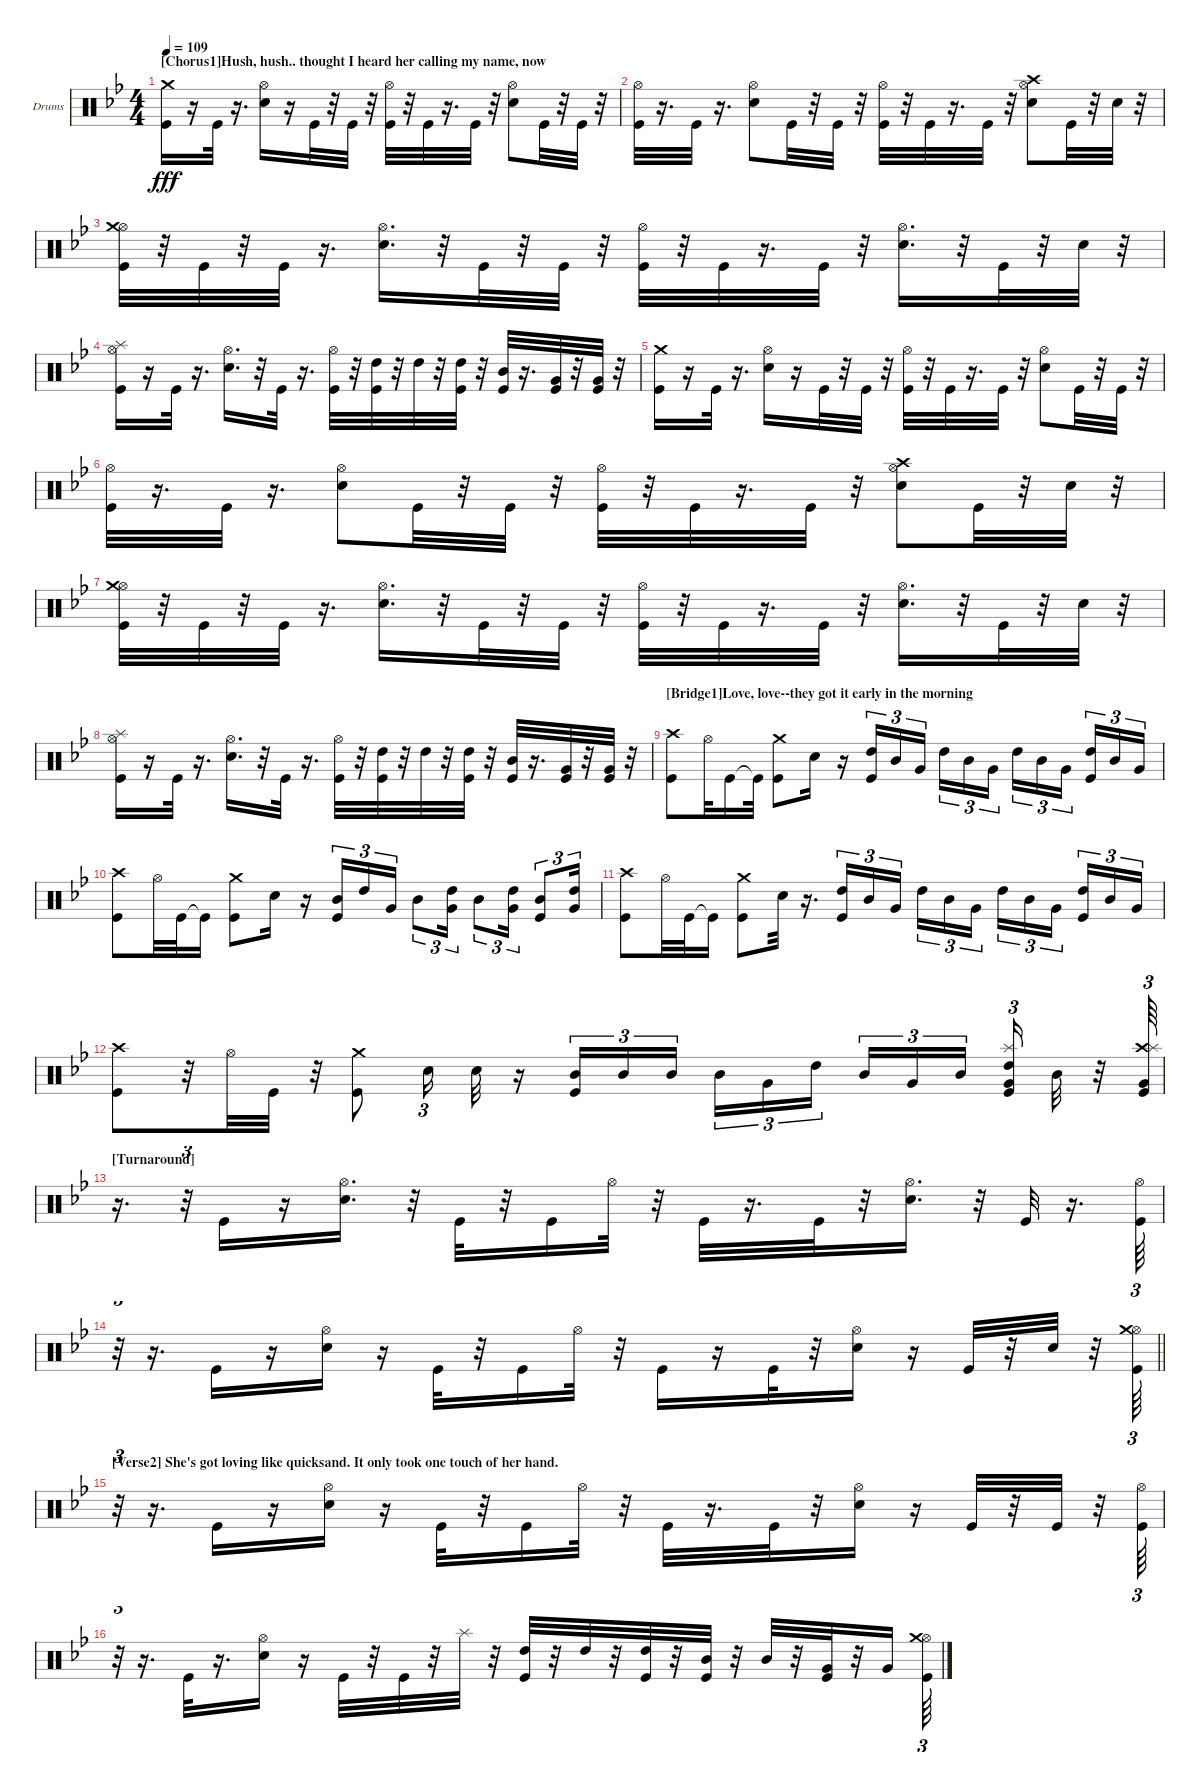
\bracketExtendMode groupsimilarinstruments
\firstSystemTrackNameOrientation horizontal
\otherSystemsTrackNameOrientation horizontal
\track ("Drumkit" "Drums") {instrument percussion}
\staff {score}
\articulation defaults
\ts (4 4)
\section ("" "[Chorus1]Hush, hush.. thought I heard her calling my name, now")
\tempo 109
\clef neutral
\ks gminor
("Kick (hit)" "Crash medium (hit)").16{dy fff} r.16 "Kick (hit)".32 r.16{d} ("Snare (hit) 2" "Hi-Hat (open)").16 r.16 "Kick (hit)".32 r.32 "Kick (hit)".32 r.32 ("Kick (hit)" "Hi-Hat (open)").32 r.32 "Kick (hit)".32 r.16{d} "Kick (hit)".32 r.32 ("Snare (hit) 2" "Hi-Hat (open)").8 "Kick (hit)".32 r.32 "Kick (hit)".32 r.32 |
("Kick (hit)" "Hi-Hat (open)").32 r.16{d} "Kick (hit)".32 r.16{d} ("Snare (hit) 2" "Hi-Hat (open)").8 "Kick (hit)".32 r.32 "Kick (hit)".32 r.32 ("Kick (hit)" "Hi-Hat (open)").32 r.32 "Kick (hit)".32 r.16{d} "Kick (hit)".32 r.32 ("Snare (hit) 2" "Hi-Hat (open)" "Crash high (hit)").8 "Kick (hit)".32 r.32 "Snare (hit) 2".32 r.32 |
("Kick (hit)" "Hi-Hat (open)" "Crash medium (hit)").32 r.32 "Kick (hit)".32 r.32 "Kick (hit)".32 r.16{d} ("Snare (hit) 2" "Hi-Hat (open)").16{d} r.32 "Kick (hit)".32 r.32 "Kick (hit)".32 r.32 ("Kick (hit)" "Hi-Hat (open)").32 r.32 "Kick (hit)".32 r.16{d} "Kick (hit)".32 r.32 ("Snare (hit) 2" "Hi-Hat (open)").16{d} r.32 "Kick (hit)".32 r.32 "Snare (hit) 2".32 r.32 |
("Kick (hit)" "Hi-Hat (open)" "Splash (hit)").16 r.16 "Kick (hit)".32 r.16{d} ("Snare (hit) 2" "Hi-Hat (open)").16{d} r.32 "Kick (hit)".32 r.16{d} ("Kick (hit)" "Hi-Hat (open)").32 r.32 ("Kick (hit)" "High Tom (hit)").32 r.32 "High Tom (hit)".32 r.32 ("Kick (hit)" "High Tom (hit)").32 r.32 ("Kick (hit)" "Mid Tom (hit)").32 r.16{d} ("Kick (hit)" "Very Low Tom (hit)").32 r.32 ("Kick (hit)" "Very Low Tom (hit)").32 r.32 |
("Kick (hit)" "Crash medium (hit)").16 r.16 "Kick (hit)".32 r.16{d} ("Snare (hit) 2" "Hi-Hat (open)").16 r.16 "Kick (hit)".32 r.32 "Kick (hit)".32 r.32 ("Kick (hit)" "Hi-Hat (open)").32 r.32 "Kick (hit)".32 r.16{d} "Kick (hit)".32 r.32 ("Snare (hit) 2" "Hi-Hat (open)").8 "Kick (hit)".32 r.32 "Kick (hit)".32 r.32 |
("Kick (hit)" "Hi-Hat (open)").32 r.16{d} "Kick (hit)".32 r.16{d} ("Snare (hit) 2" "Hi-Hat (open)").8 "Kick (hit)".32 r.32 "Kick (hit)".32 r.32 ("Kick (hit)" "Hi-Hat (open)").32 r.32 "Kick (hit)".32 r.16{d} "Kick (hit)".32 r.32 ("Snare (hit) 2" "Hi-Hat (open)" "Crash high (hit)").8 "Kick (hit)".32 r.32 "Snare (hit) 2".32 r.32 |
("Kick (hit)" "Hi-Hat (open)" "Crash medium (hit)").32 r.32 "Kick (hit)".32 r.32 "Kick (hit)".32 r.16{d} ("Snare (hit) 2" "Hi-Hat (open)").16{d} r.32 "Kick (hit)".32 r.32 "Kick (hit)".32 r.32 ("Kick (hit)" "Hi-Hat (open)").32 r.32 "Kick (hit)".32 r.16{d} "Kick (hit)".32 r.32 ("Snare (hit) 2" "Hi-Hat (open)").16{d} r.32 "Kick (hit)".32 r.32 "Snare (hit) 2".32 r.32 |
("Kick (hit)" "Hi-Hat (open)" "Splash (hit)").16 r.16 "Kick (hit)".32 r.16{d} ("Snare (hit) 2" "Hi-Hat (open)").16{d} r.32 "Kick (hit)".32 r.16{d} ("Kick (hit)" "Hi-Hat (open)").32 r.32 ("Kick (hit)" "High Tom (hit)").32 r.32 "High Tom (hit)".32 r.32 ("Kick (hit)" "High Tom (hit)").32 r.32 ("Kick (hit)" "Mid Tom (hit)").32 r.16{d} ("Kick (hit)" "Very Low Tom (hit)").32 r.32 ("Kick (hit)" "Very Low Tom (hit)").32 r.32 |
\section ("" "[Bridge1]Love, love--they got it early in the morning")
("Kick (hit)" "Crash high (hit)").8 "Hi-Hat (open)".32 "Kick (hit)".16 "Kick (hit)"{t}.32 ("Kick (hit)" "Crash medium (hit)").8 "Snare (hit) 2".16 r.16 ("Kick (hit)" "High Tom (hit)").16{tu (3 2)} "Mid Tom (hit)".16{tu (3 2)} "Very Low Tom (hit)".16{tu (3 2)} "High Tom (hit)".16{tu (3 2)} "Mid Tom (hit)".16{tu (3 2)} "Very Low Tom (hit)".16{tu (3 2)} "High Tom (hit)".16{tu (3 2)} "Mid Tom (hit)".16{tu (3 2)} "Very Low Tom (hit)".16{tu (3 2)} ("Kick (hit)" "High Tom (hit)").16{tu (3 2)} "Mid Tom (hit)".16{tu (3 2)} "Very Low Tom (hit)".16{tu (3 2)} |
("Kick (hit)" "Crash high (hit)").8 "Hi-Hat (open)".32 "Kick (hit)".32 "Kick (hit)"{t}.16 ("Kick (hit)" "Crash medium (hit)").8 "Snare (hit) 2".16 r.16 ("Kick (hit)" "Mid Tom (hit)").16{tu (3 2)} "High Tom (hit)".16{tu (3 2)} "Very Low Tom (hit)".16{tu (3 2)} "Mid Tom (hit)".8{tu (3 2)} ("Very Low Tom (hit)" "High Tom (hit)").16{tu (3 2)} "Mid Tom (hit)".8{tu (3 2)} ("Very Low Tom (hit)" "High Tom (hit)").16{tu (3 2)} ("Kick (hit)" "Mid Tom (hit)").8{tu (3 2)} ("Very Low Tom (hit)" "High Tom (hit)").16{tu (3 2)} |
("Kick (hit)" "Crash high (hit)").8 "Hi-Hat (open)".32 "Kick (hit)".32 "Kick (hit)"{t}.16 ("Kick (hit)" "Crash medium (hit)").8 "Snare (hit) 2".32 r.16{d} ("Kick (hit)" "High Tom (hit)").16{tu (3 2)} "Mid Tom (hit)".16{tu (3 2)} "Very Low Tom (hit)".16{tu (3 2)} "High Tom (hit)".16{tu (3 2)} "Mid Tom (hit)".16{tu (3 2)} "Very Low Tom (hit)".16{tu (3 2)} "High Tom (hit)".16{tu (3 2)} "Mid Tom (hit)".16{tu (3 2)} "Very Low Tom (hit)".16{tu (3 2)} ("Kick (hit)" "High Tom (hit)").16{tu (3 2)} "Mid Tom (hit)".16{tu (3 2)} "Very Low Tom (hit)".16{tu (3 2)} |
("Kick (hit)" "Crash high (hit)").8 r.32 "Hi-Hat (open)".32 "Kick (hit)".32 r.32 ("Kick (hit)" "Crash medium (hit)").8 "Snare (hit) 2".16{tu (3 2)} "Snare (hit) 2".32 r.16 ("Kick (hit)" "Mid Tom (hit)").16{tu (3 2)} "Mid Tom (hit)".16{tu (3 2)} "Mid Tom (hit)".16{tu (3 2)} "Mid Tom (hit)".16{tu (3 2)} "Very Low Tom (hit)".16{tu (3 2)} "High Tom (hit)".16{tu (3 2)} "Mid Tom (hit)".16{tu (3 2)} "Very Low Tom (hit)".16{tu (3 2)} "Mid Tom (hit)".16{tu (3 2)} ("Kick (hit)" "Very Low Tom (hit)" "High Tom (hit)" "Splash (hit)").16{tu (3 2)} "Mid Tom (hit)".32 r.32 ("Kick (hit)" "Very Low Tom (hit)" "Crash high (hit)" "Splash (hit)").64{tu (3 2)} |
\section ("" "[Turnaround]")
r.16{d} r.32{tu (3 2)} "Kick (hit)".16 r.16 ("Snare (hit) 2" "Hi-Hat (open)").16{d} r.32 "Kick (hit)".32 r.32 "Kick (hit)".16 "Hi-Hat (open)".32 r.32 "Kick (hit)".32 r.16{d} "Kick (hit)".32 r.32 ("Snare (hit) 2" "Hi-Hat (open)").16{d} r.32 "Kick (hit)".32 r.16{d} ("Kick (hit)" "Hi-Hat (open)").64{tu (3 2)} |
\barLineRight lightlight
r.32{tu (3 2)} r.16{d} "Kick (hit)".16 r.16 ("Snare (hit) 2" "Hi-Hat (open)").16 r.16 "Kick (hit)".32 r.32 "Kick (hit)".16 "Hi-Hat (open)".32 r.32 "Kick (hit)".16 r.16 "Kick (hit)".32 r.32 ("Snare (hit) 2" "Hi-Hat (open)").16 r.16 "Kick (hit)".32 r.32 "Snare (hit) 2".32 r.32 ("Kick (hit)" "Hi-Hat (open)" "Crash medium (hit)").64{tu (3 2)} |
\section ("" "[Verse2] She's got loving like quicksand. It only took one touch of her hand.")
r.32{tu (3 2)} r.16{d} "Kick (hit)".16 r.16 ("Snare (hit) 2" "Hi-Hat (open)").16 r.16 "Kick (hit)".32 r.32 "Kick (hit)".16 "Hi-Hat (open)".32 r.32 "Kick (hit)".32 r.16{d} "Kick (hit)".32 r.32 ("Snare (hit) 2" "Hi-Hat (open)").16 r.16 "Kick (hit)".32 r.32 "Kick (hit)".32 r.32 ("Kick (hit)" "Hi-Hat (open)").64{tu (3 2)} |
r.32{tu (3 2)} r.16{d} "Kick (hit)".32 r.16{d} ("Snare (hit) 2" "Hi-Hat (open)").16 r.16 "Kick (hit)".32 r.32 "Kick (hit)".32 r.32 "Splash (hit)".32 r.32 ("Kick (hit)" "High Tom (hit)").32 r.32 "High Tom (hit)".32 r.32 ("Kick (hit)" "High Tom (hit)").32 r.32 ("Kick (hit)" "Mid Tom (hit)").32 r.32 "Mid Tom (hit)".32 r.32 ("Kick (hit)" "Very Low Tom (hit)").32 r.32 "Very Low Tom (hit)".16 ("Kick (hit)" "Hi-Hat (open)" "Crash medium (hit)").64{tu (3 2)}
